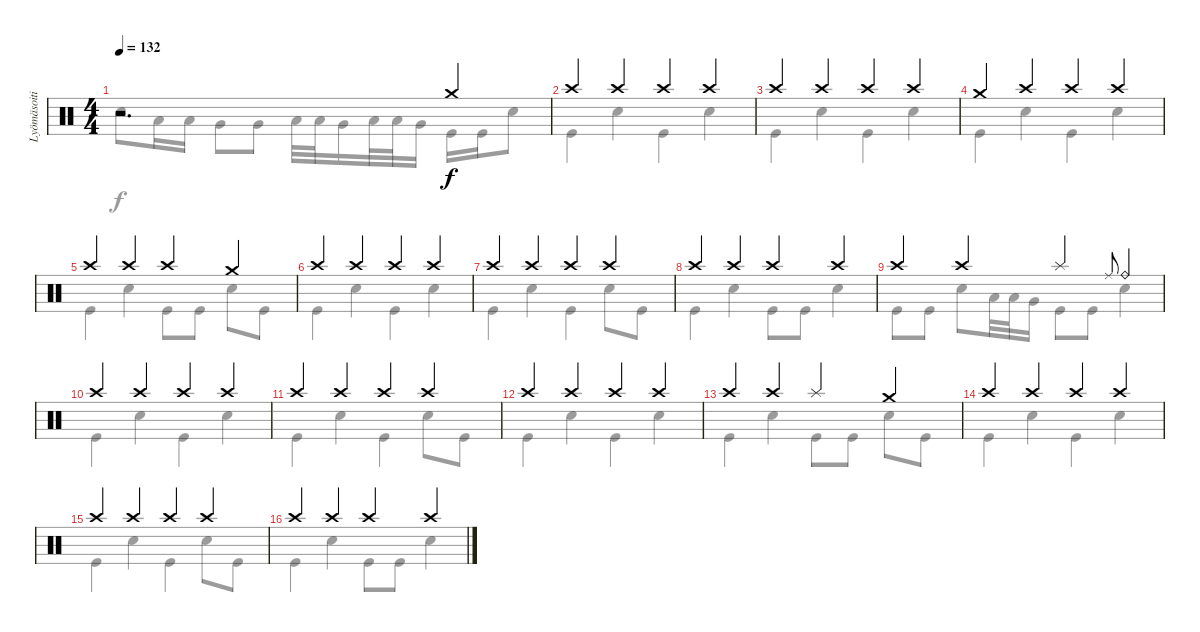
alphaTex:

\track ("Lyömäsoitin" "Lyömäsoiti") {instrument percussion}
\staff {score}
\articulation defaults
\voice
\ts (4 4)
\tempo 132
\clef neutral
\ks c
r.2{d dy f} "Crash medium (hit)".4 |
"Crash high (hit)".4 "Crash high (hit)".4 "Crash high (hit)".4 "Crash high (hit)".4 |
"Crash high (hit)".4 "Crash high (hit)".4 "Crash high (hit)".4 "Crash high (hit)".4 |
"Crash medium (hit)".4 "Crash high (hit)".4 "Crash high (hit)".4 "Crash high (hit)".4 |
"Crash high (hit)".4 "Crash high (hit)".4 "Crash high (hit)".4 "Crash medium (hit)".4 |
"Crash high (hit)".4 "Crash high (hit)".4 "Crash high (hit)".4 "Crash high (hit)".4 |
"Crash high (hit)".4 "Crash high (hit)".4 "Crash high (hit)".4 "Crash high (hit)".4 |
"Crash high (hit)".4 "Crash high (hit)".4 "Crash high (hit)".4 "Crash high (hit)".4 |
"Crash high (hit)".4 "Crash high (hit)".4 "Splash (hit)".4 "Ride (middle)".8{gr onbeat} "Ride (bell)".4 |
"Crash high (hit)".4 "Crash high (hit)".4 "Crash high (hit)".4 "Crash high (hit)".4 |
"Crash high (hit)".4 "Crash high (hit)".4 "Crash high (hit)".4 "Crash high (hit)".4 |
"Crash high (hit)".4 "Crash high (hit)".4 "Crash high (hit)".4 "Crash high (hit)".4 |
"Crash high (hit)".4 "Crash high (hit)".4 "Splash (hit)".4 "Crash medium (hit)".4 |
"Crash high (hit)".4 "Crash high (hit)".4 "Crash high (hit)".4 "Crash high (hit)".4 |
"Crash high (hit)".4 "Crash high (hit)".4 "Crash high (hit)".4 "Crash high (hit)".4 |
"Crash high (hit)".4 "Crash high (hit)".4 "Crash high (hit)".4 "Crash high (hit)".4
\voice
\clef neutral
\ottava regular
\simile none
\ks c "Electric Snare (hit)".8{dy f} "Low Tom (hit)".16 "Low Tom (hit)".16 "Very Low Tom (hit)".8 "Very Low Tom (hit)".8 "Low Tom (hit)".32 "Low Tom (hit)".32 "Very Low Tom (hit)".16 "Low Tom (hit)".32 "Low Tom (hit)".32 "Very Low Tom (hit)".16 "Kick (hit)".16 "Kick (hit)".16 "Electric Snare (hit)".8
|
"Kick (hit)".4 "Electric Snare (hit)".4 "Kick (hit)".4 "Electric Snare (hit)".4 |
"Kick (hit)".4 "Electric Snare (hit)".4 "Kick (hit)".4 "Electric Snare (hit)".4 |
"Kick (hit)".4 "Electric Snare (hit)".4 "Kick (hit)".4 "Electric Snare (hit)".4 |
"Kick (hit)".4 "Electric Snare (hit)".4 "Kick (hit)".8 "Kick (hit)".8 "Electric Snare (hit)".8 "Kick (hit)".8 |
"Kick (hit)".4 "Electric Snare (hit)".4 "Kick (hit)".4 "Electric Snare (hit)".4 |
"Kick (hit)".4 "Electric Snare (hit)".4 "Kick (hit)".4 "Electric Snare (hit)".8 "Kick (hit)".8 |
"Kick (hit)".4 "Electric Snare (hit)".4 "Kick (hit)".8 "Kick (hit)".8 "Electric Snare (hit)".4 |
"Kick (hit)".8 "Kick (hit)".8 "Electric Snare (hit)".8 "Low Tom (hit)".32 "Low Tom (hit)".32 "Very Low Tom (hit)".16 "Kick (hit)".8 "Kick (hit)".8 "Electric Snare (hit)".4 |
"Kick (hit)".4 "Electric Snare (hit)".4 "Kick (hit)".4 "Electric Snare (hit)".4 |
"Kick (hit)".4 "Electric Snare (hit)".4 "Kick (hit)".4 "Electric Snare (hit)".8 "Kick (hit)".8 |
"Kick (hit)".4 "Electric Snare (hit)".4 "Kick (hit)".4 "Electric Snare (hit)".4 |
"Kick (hit)".4 "Electric Snare (hit)".4 "Kick (hit)".8 "Kick (hit)".8 "Electric Snare (hit)".8 "Kick (hit)".8 |
"Kick (hit)".4 "Electric Snare (hit)".4 "Kick (hit)".4 "Electric Snare (hit)".4 |
"Kick (hit)".4 "Electric Snare (hit)".4 "Kick (hit)".4 "Electric Snare (hit)".8 "Kick (hit)".8 |
"Kick (hit)".4 "Electric Snare (hit)".4 "Kick (hit)".8 "Kick (hit)".8 "Electric Snare (hit)".4
